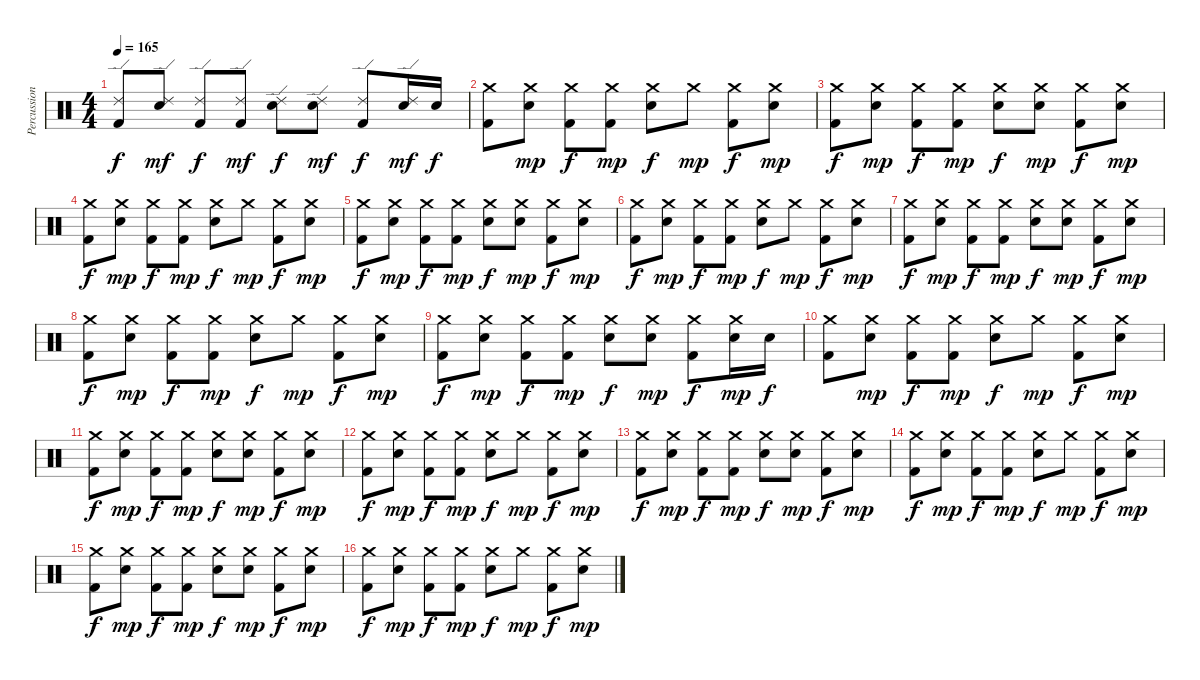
\track ("Percussion" "Percussion") {instrument percussion}
\staff {score}
\articulation defaults
\ts (4 4)
\tempo 165
\clef neutral
\ks c
("Ride (edge) 2" "Kick (hit) 2").8{dy f} ("Ride (edge) 2" "Snare (hit) 2").8{dy mf} ("Ride (edge) 2" "Kick (hit) 2").8{dy f} ("Ride (edge) 2" "Kick (hit) 2").8{dy mf} ("Ride (edge) 2" "Snare (hit) 2").8{dy f} ("Ride (edge) 2" "Snare (hit) 2").8{dy mf} ("Ride (edge) 2" "Kick (hit) 2").8{dy f} ("Ride (edge) 2" "Snare (hit) 2").16{dy mf} "Snare (hit) 2".16{dy f} |
("Crash medium (hit)" "Kick (hit) 2").8 ("Crash medium (hit)" "Snare (hit) 2").8{dy mp} ("Crash medium (hit)" "Kick (hit) 2").8{dy f} ("Crash medium (hit)" "Kick (hit) 2").8{dy mp} ("Crash medium (hit)" "Snare (hit) 2").8{dy f} "Crash medium (hit)".8{dy mp} ("Crash medium (hit)" "Kick (hit) 2").8{dy f} ("Crash medium (hit)" "Snare (hit) 2").8{dy mp} |
("Crash medium (hit)" "Kick (hit) 2").8{dy f} ("Crash medium (hit)" "Snare (hit) 2").8{dy mp} ("Crash medium (hit)" "Kick (hit) 2").8{dy f} ("Crash medium (hit)" "Kick (hit) 2").8{dy mp} ("Crash medium (hit)" "Snare (hit) 2").8{dy f} ("Crash medium (hit)" "Snare (hit) 2").8{dy mp} ("Crash medium (hit)" "Kick (hit) 2").8{dy f} ("Crash medium (hit)" "Snare (hit) 2").8{dy mp} |
("Crash medium (hit)" "Kick (hit) 2").8{dy f} ("Crash medium (hit)" "Snare (hit) 2").8{dy mp} ("Crash medium (hit)" "Kick (hit) 2").8{dy f} ("Crash medium (hit)" "Kick (hit) 2").8{dy mp} ("Crash medium (hit)" "Snare (hit) 2").8{dy f} "Crash medium (hit)".8{dy mp} ("Crash medium (hit)" "Kick (hit) 2").8{dy f} ("Crash medium (hit)" "Snare (hit) 2").8{dy mp} |
("Crash medium (hit)" "Kick (hit) 2").8{dy f} ("Crash medium (hit)" "Snare (hit) 2").8{dy mp} ("Crash medium (hit)" "Kick (hit) 2").8{dy f} ("Crash medium (hit)" "Kick (hit) 2").8{dy mp} ("Crash medium (hit)" "Snare (hit) 2").8{dy f} ("Crash medium (hit)" "Snare (hit) 2").8{dy mp} ("Crash medium (hit)" "Kick (hit) 2").8{dy f} ("Crash medium (hit)" "Snare (hit) 2").8{dy mp} |
("Crash medium (hit)" "Kick (hit) 2").8{dy f} ("Crash medium (hit)" "Snare (hit) 2").8{dy mp} ("Crash medium (hit)" "Kick (hit) 2").8{dy f} ("Crash medium (hit)" "Kick (hit) 2").8{dy mp} ("Crash medium (hit)" "Snare (hit) 2").8{dy f} "Crash medium (hit)".8{dy mp} ("Crash medium (hit)" "Kick (hit) 2").8{dy f} ("Crash medium (hit)" "Snare (hit) 2").8{dy mp} |
("Crash medium (hit)" "Kick (hit) 2").8{dy f} ("Crash medium (hit)" "Snare (hit) 2").8{dy mp} ("Crash medium (hit)" "Kick (hit) 2").8{dy f} ("Crash medium (hit)" "Kick (hit) 2").8{dy mp} ("Crash medium (hit)" "Snare (hit) 2").8{dy f} ("Crash medium (hit)" "Snare (hit) 2").8{dy mp} ("Crash medium (hit)" "Kick (hit) 2").8{dy f} ("Crash medium (hit)" "Snare (hit) 2").8{dy mp} |
("Crash medium (hit)" "Kick (hit) 2").8{dy f} ("Crash medium (hit)" "Snare (hit) 2").8{dy mp} ("Crash medium (hit)" "Kick (hit) 2").8{dy f} ("Crash medium (hit)" "Kick (hit) 2").8{dy mp} ("Crash medium (hit)" "Snare (hit) 2").8{dy f} "Crash medium (hit)".8{dy mp} ("Crash medium (hit)" "Kick (hit) 2").8{dy f} ("Crash medium (hit)" "Snare (hit) 2").8{dy mp} |
("Crash medium (hit)" "Kick (hit) 2").8{dy f} ("Crash medium (hit)" "Snare (hit) 2").8{dy mp} ("Crash medium (hit)" "Kick (hit) 2").8{dy f} ("Crash medium (hit)" "Kick (hit) 2").8{dy mp} ("Crash medium (hit)" "Snare (hit) 2").8{dy f} ("Crash medium (hit)" "Snare (hit) 2").8{dy mp} ("Crash medium (hit)" "Kick (hit) 2").8{dy f} ("Crash medium (hit)" "Snare (hit) 2").16{dy mp} "Snare (hit) 2".16{dy f} |
("Crash medium (hit)" "Kick (hit) 2").8 ("Crash medium (hit)" "Snare (hit) 2").8{dy mp} ("Crash medium (hit)" "Kick (hit) 2").8{dy f} ("Crash medium (hit)" "Kick (hit) 2").8{dy mp} ("Crash medium (hit)" "Snare (hit) 2").8{dy f} "Crash medium (hit)".8{dy mp} ("Crash medium (hit)" "Kick (hit) 2").8{dy f} ("Crash medium (hit)" "Snare (hit) 2").8{dy mp} |
("Crash medium (hit)" "Kick (hit) 2").8{dy f} ("Crash medium (hit)" "Snare (hit) 2").8{dy mp} ("Crash medium (hit)" "Kick (hit) 2").8{dy f} ("Crash medium (hit)" "Kick (hit) 2").8{dy mp} ("Crash medium (hit)" "Snare (hit) 2").8{dy f} ("Crash medium (hit)" "Snare (hit) 2").8{dy mp} ("Crash medium (hit)" "Kick (hit) 2").8{dy f} ("Crash medium (hit)" "Snare (hit) 2").8{dy mp} |
("Crash medium (hit)" "Kick (hit) 2").8{dy f} ("Crash medium (hit)" "Snare (hit) 2").8{dy mp} ("Crash medium (hit)" "Kick (hit) 2").8{dy f} ("Crash medium (hit)" "Kick (hit) 2").8{dy mp} ("Crash medium (hit)" "Snare (hit) 2").8{dy f} "Crash medium (hit)".8{dy mp} ("Crash medium (hit)" "Kick (hit) 2").8{dy f} ("Crash medium (hit)" "Snare (hit) 2").8{dy mp} |
("Crash medium (hit)" "Kick (hit) 2").8{dy f} ("Crash medium (hit)" "Snare (hit) 2").8{dy mp} ("Crash medium (hit)" "Kick (hit) 2").8{dy f} ("Crash medium (hit)" "Kick (hit) 2").8{dy mp} ("Crash medium (hit)" "Snare (hit) 2").8{dy f} ("Crash medium (hit)" "Snare (hit) 2").8{dy mp} ("Crash medium (hit)" "Kick (hit) 2").8{dy f} ("Crash medium (hit)" "Snare (hit) 2").8{dy mp} |
("Crash medium (hit)" "Kick (hit) 2").8{dy f} ("Crash medium (hit)" "Snare (hit) 2").8{dy mp} ("Crash medium (hit)" "Kick (hit) 2").8{dy f} ("Crash medium (hit)" "Kick (hit) 2").8{dy mp} ("Crash medium (hit)" "Snare (hit) 2").8{dy f} "Crash medium (hit)".8{dy mp} ("Crash medium (hit)" "Kick (hit) 2").8{dy f} ("Crash medium (hit)" "Snare (hit) 2").8{dy mp} |
("Crash medium (hit)" "Kick (hit) 2").8{dy f} ("Crash medium (hit)" "Snare (hit) 2").8{dy mp} ("Crash medium (hit)" "Kick (hit) 2").8{dy f} ("Crash medium (hit)" "Kick (hit) 2").8{dy mp} ("Crash medium (hit)" "Snare (hit) 2").8{dy f} ("Crash medium (hit)" "Snare (hit) 2").8{dy mp} ("Crash medium (hit)" "Kick (hit) 2").8{dy f} ("Crash medium (hit)" "Snare (hit) 2").8{dy mp} |
("Crash medium (hit)" "Kick (hit) 2").8{dy f} ("Crash medium (hit)" "Snare (hit) 2").8{dy mp} ("Crash medium (hit)" "Kick (hit) 2").8{dy f} ("Crash medium (hit)" "Kick (hit) 2").8{dy mp} ("Crash medium (hit)" "Snare (hit) 2").8{dy f} "Crash medium (hit)".8{dy mp} ("Crash medium (hit)" "Kick (hit) 2").8{dy f} ("Crash medium (hit)" "Snare (hit) 2").8{dy mp}
